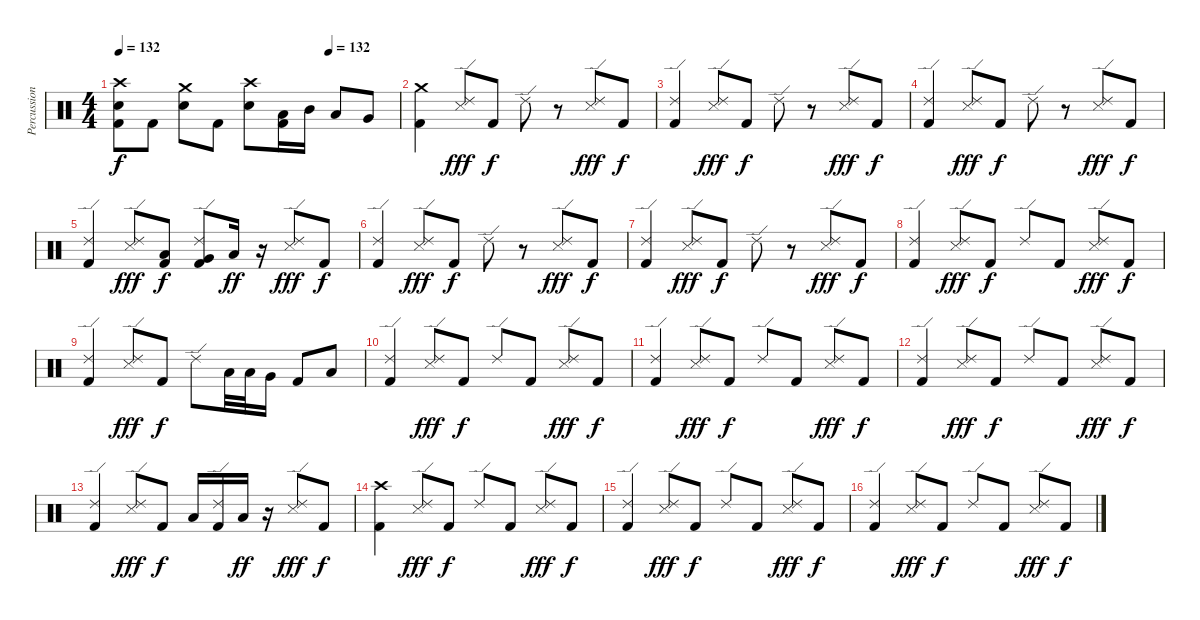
\track ("Percussions" "Percussion") {instrument percussion}
\staff {score}
\articulation defaults
\ts (4 4)
\tempo 132
\tempo (132 0.75)
\clef neutral
\ks c
("Crash high (hit)" "Electric Snare (hit)" "Kick (hit) 2").8{dy f} "Kick (hit) 2".8 ("Crash medium (hit)" "Electric Snare (hit)").8 "Kick (hit) 2".8 ("Crash high (hit)" "Electric Snare (hit)").8 ("Low Tom (hit)" "Kick (hit) 2").16 "Mid Tom (hit)".16 "Low Tom (hit)".8 "Very Low Tom (hit)".8 |
("Crash medium (hit)" "Kick (hit) 2").4 ("Ride (edge) 2" "Snare (side stick) 3").8{dy fff} "Kick (hit) 2".8{dy f} "Ride (edge) 2".8 r.8 ("Ride (edge) 2" "Snare (side stick) 3").8{dy fff} "Kick (hit) 2".8{dy f} |
("Ride (edge) 2" "Kick (hit) 2").4 ("Ride (edge) 2" "Snare (side stick) 3").8{dy fff} "Kick (hit) 2".8{dy f} "Ride (edge) 2".8 r.8 ("Ride (edge) 2" "Snare (side stick) 3").8{dy fff} "Kick (hit) 2".8{dy f} |
("Ride (edge) 2" "Kick (hit) 2").4 ("Ride (edge) 2" "Snare (side stick) 3").8{dy fff} "Kick (hit) 2".8{dy f} "Ride (edge) 2".8 r.8 ("Ride (edge) 2" "Snare (side stick) 3").8{dy fff} "Kick (hit) 2".8{dy f} |
("Ride (edge) 2" "Kick (hit) 2").4 ("Ride (edge) 2" "Snare (side stick) 3").8{dy fff} ("Low Tom (hit)" "Kick (hit) 2").8{dy f} ("Ride (edge) 2" "Very Low Tom (hit)" "Kick (hit) 2").8 "Low Floor Tom (hit)".16{dy ff} r.16 ("Ride (edge) 2" "Snare (side stick) 3").8{dy fff} "Kick (hit) 2".8{dy f} |
("Ride (edge) 2" "Kick (hit) 2").4 ("Ride (edge) 2" "Snare (side stick) 3").8{dy fff} "Kick (hit) 2".8{dy f} "Ride (edge) 2".8 r.8 ("Ride (edge) 2" "Snare (side stick) 3").8{dy fff} "Kick (hit) 2".8{dy f} |
("Ride (edge) 2" "Kick (hit) 2").4 ("Ride (edge) 2" "Snare (side stick) 3").8{dy fff} "Kick (hit) 2".8{dy f} "Ride (edge) 2".8 r.8 ("Ride (edge) 2" "Snare (side stick) 3").8{dy fff} "Kick (hit) 2".8{dy f} |
("Ride (edge) 2" "Kick (hit) 2").4 ("Ride (edge) 2" "Snare (side stick) 3").8{dy fff} "Kick (hit) 2".8{dy f} "Ride (edge) 2".8 "Kick (hit) 2".8 ("Ride (edge) 2" "Snare (side stick) 3").8{dy fff} "Kick (hit) 2".8{dy f} |
("Ride (edge) 2" "Kick (hit) 2").4 ("Ride (edge) 2" "Snare (side stick) 3").8{dy fff} "Kick (hit) 2".8{dy f} "Ride (edge) 2".8 "Low Tom (hit)".32 "Low Tom (hit)".32 "Very Low Tom (hit)".16 "Kick (hit) 2".8 "Low Floor Tom (hit)".8 |
("Ride (edge) 2" "Kick (hit) 2").4 ("Ride (edge) 2" "Snare (side stick) 3").8{dy fff} "Kick (hit) 2".8{dy f} "Ride (edge) 2".8 "Kick (hit) 2".8 ("Ride (edge) 2" "Snare (side stick) 3").8{dy fff} "Kick (hit) 2".8{dy f} |
("Ride (edge) 2" "Kick (hit) 2").4 ("Ride (edge) 2" "Snare (side stick) 3").8{dy fff} "Kick (hit) 2".8{dy f} "Ride (edge) 2".8 "Kick (hit) 2".8 ("Ride (edge) 2" "Snare (side stick) 3").8{dy fff} "Kick (hit) 2".8{dy f} |
("Ride (edge) 2" "Kick (hit) 2").4 ("Ride (edge) 2" "Snare (side stick) 3").8{dy fff} "Kick (hit) 2".8{dy f} "Ride (edge) 2".8 "Kick (hit) 2".8 ("Ride (edge) 2" "Snare (side stick) 3").8{dy fff} "Kick (hit) 2".8{dy f} |
("Ride (edge) 2" "Kick (hit) 2").4 ("Ride (edge) 2" "Snare (side stick) 3").8{dy fff} "Kick (hit) 2".8{dy f} "Low Tom (hit)".16 ("Ride (edge) 2" "Kick (hit) 2").16 "Low Floor Tom (hit)".16{dy ff} r.16 ("Ride (edge) 2" "Snare (side stick) 3").8{dy fff} "Kick (hit) 2".8{dy f} |
("Crash high (hit)" "Kick (hit) 2").4 ("Ride (edge) 2" "Snare (side stick) 3").8{dy fff} "Kick (hit) 2".8{dy f} "Ride (edge) 2".8 "Kick (hit) 2".8 ("Ride (edge) 2" "Snare (side stick) 3").8{dy fff} "Kick (hit) 2".8{dy f} |
("Ride (edge) 2" "Kick (hit) 2").4 ("Ride (edge) 2" "Snare (side stick) 3").8{dy fff} "Kick (hit) 2".8{dy f} "Ride (edge) 2".8 "Kick (hit) 2".8 ("Ride (edge) 2" "Snare (side stick) 3").8{dy fff} "Kick (hit) 2".8{dy f} |
("Ride (edge) 2" "Kick (hit) 2").4 ("Ride (edge) 2" "Snare (side stick) 3").8{dy fff} "Kick (hit) 2".8{dy f} "Ride (edge) 2".8 "Kick (hit) 2".8 ("Ride (edge) 2" "Snare (side stick) 3").8{dy fff} "Kick (hit) 2".8{dy f}
